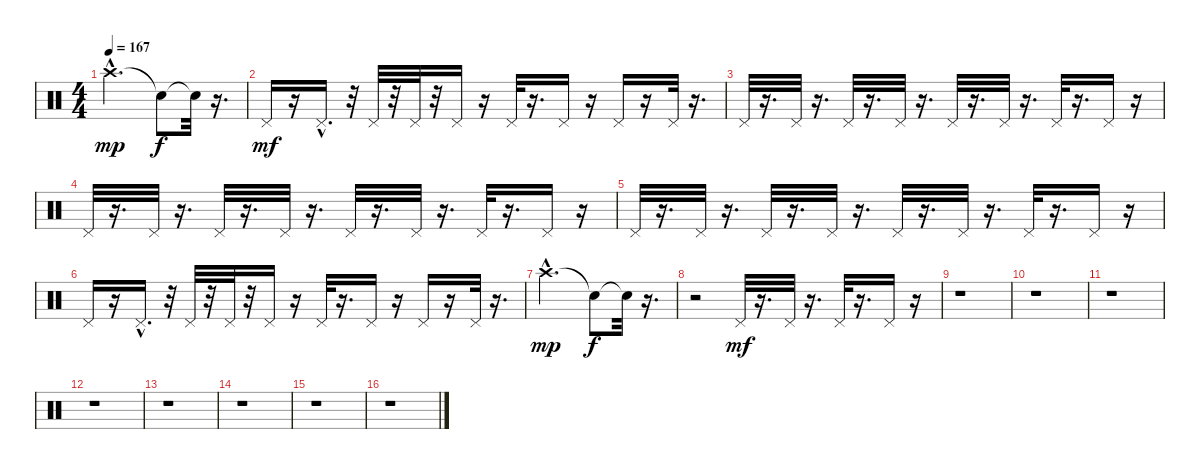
\track "" {instrument percussion}
\staff {score}
\articulation defaults
\ts (4 4)
\tempo 167
\clef neutral
\ks c "Crash high (hit)"{hac}.2{d dy mp} "Snare (hit)"{t}.8{dy f} "Snare (hit)"{t}.32
r.16{d} |
"Pedal Hi-Hat (hit)".16{dy mf} r.16 "Pedal Hi-Hat (hit)"{hac}.16{d} r.32 "Pedal Hi-Hat (hit)".32 r.32 "Pedal Hi-Hat (hit)".32 r.32 "Pedal Hi-Hat (hit)".16 r.16 "Pedal Hi-Hat (hit)".32 r.16{d} "Pedal Hi-Hat (hit)".16 r.16 "Pedal Hi-Hat (hit)".16 r.16 "Pedal Hi-Hat (hit)".32 r.16{d} |
"Pedal Hi-Hat (hit)".32 r.16{d} "Pedal Hi-Hat (hit)".32 r.16{d} "Pedal Hi-Hat (hit)".32 r.16{d} "Pedal Hi-Hat (hit)".32 r.16{d} "Pedal Hi-Hat (hit)".32 r.16{d} "Pedal Hi-Hat (hit)".32 r.16{d} "Pedal Hi-Hat (hit)".32 r.16{d} "Pedal Hi-Hat (hit)".16 r.16 |
"Pedal Hi-Hat (hit)".32 r.16{d} "Pedal Hi-Hat (hit)".32 r.16{d} "Pedal Hi-Hat (hit)".32 r.16{d} "Pedal Hi-Hat (hit)".32 r.16{d} "Pedal Hi-Hat (hit)".32 r.16{d} "Pedal Hi-Hat (hit)".32 r.16{d} "Pedal Hi-Hat (hit)".32 r.16{d} "Pedal Hi-Hat (hit)".16 r.16 |
"Pedal Hi-Hat (hit)".32 r.16{d} "Pedal Hi-Hat (hit)".32 r.16{d} "Pedal Hi-Hat (hit)".32 r.16{d} "Pedal Hi-Hat (hit)".32 r.16{d} "Pedal Hi-Hat (hit)".32 r.16{d} "Pedal Hi-Hat (hit)".32 r.16{d} "Pedal Hi-Hat (hit)".32 r.16{d} "Pedal Hi-Hat (hit)".16 r.16 |
"Pedal Hi-Hat (hit)".16 r.16 "Pedal Hi-Hat (hit)"{hac}.16{d} r.32 "Pedal Hi-Hat (hit)".32 r.32 "Pedal Hi-Hat (hit)".32 r.32 "Pedal Hi-Hat (hit)".16 r.16 "Pedal Hi-Hat (hit)".32 r.16{d} "Pedal Hi-Hat (hit)".16 r.16 "Pedal Hi-Hat (hit)".16 r.16 "Pedal Hi-Hat (hit)".32 r.16{d} |
"Crash high (hit)"{hac}.2{d dy mp} "Snare (hit)"{t}.8{dy f} "Snare (hit)"{t}.32 r.16{d} |
r.2 "Pedal Hi-Hat (hit)".32{dy mf} r.16{d} "Pedal Hi-Hat (hit)".32 r.16{d} "Pedal Hi-Hat (hit)".32 r.16{d} "Pedal Hi-Hat (hit)".16 r.16 |
r.1 |
r.1 |
r.1 |
r.1 |
r.1 |
r.1 |
r.1 |
r.1
